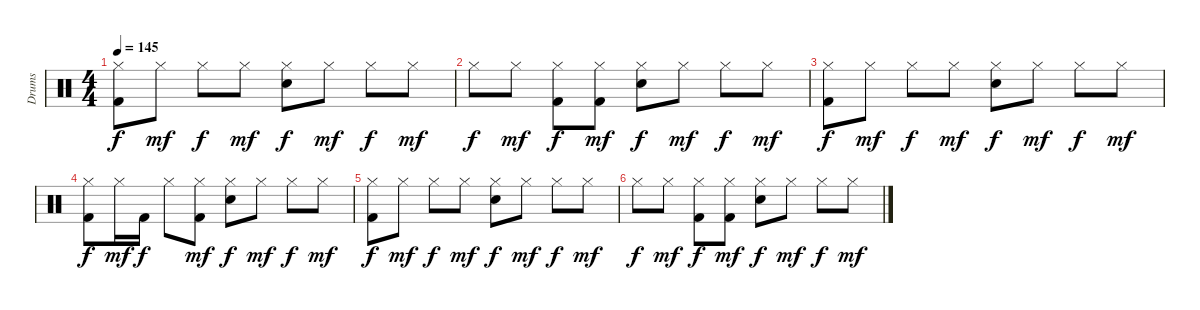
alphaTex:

\track ("Drums" "Drums") {instrument percussion}
\staff {score}
\articulation defaults
\ts (4 4)
\tempo 145
\clef neutral
\ks c
("Hi-Hat (closed)" "Kick (hit) 2").8{dy f} "Hi-Hat (closed)".8{dy mf} "Hi-Hat (closed)".8{dy f} "Hi-Hat (closed)".8{dy mf} ("Hi-Hat (closed)" "Electric Snare (hit)").8{dy f} "Hi-Hat (closed)".8{dy mf} "Hi-Hat (closed)".8{dy f} "Hi-Hat (closed)".8{dy mf} |
"Hi-Hat (closed)".8{dy f} "Hi-Hat (closed)".8{dy mf} ("Hi-Hat (closed)" "Kick (hit) 2").8{dy f} ("Hi-Hat (closed)" "Kick (hit) 2").8{dy mf} ("Hi-Hat (closed)" "Electric Snare (hit)").8{dy f} "Hi-Hat (closed)".8{dy mf} "Hi-Hat (closed)".8{dy f} "Hi-Hat (closed)".8{dy mf} |
("Hi-Hat (closed)" "Kick (hit) 2").8{dy f} "Hi-Hat (closed)".8{dy mf} "Hi-Hat (closed)".8{dy f} "Hi-Hat (closed)".8{dy mf volume 0} ("Hi-Hat (closed)" "Electric Snare (hit)").8{dy f} "Hi-Hat (closed)".8{dy mf} "Hi-Hat (closed)".8{dy f} "Hi-Hat (closed)".8{dy mf} |
("Hi-Hat (closed)" "Kick (hit) 2").8{dy f} "Hi-Hat (closed)".16{dy mf} "Kick (hit) 2".16{dy f} "Hi-Hat (closed)".8 ("Hi-Hat (closed)" "Kick (hit) 2").8{dy mf} ("Hi-Hat (closed)" "Electric Snare (hit)").8{dy f} "Hi-Hat (closed)".8{dy mf} "Hi-Hat (closed)".8{dy f} "Hi-Hat (closed)".8{dy mf} |
("Hi-Hat (closed)" "Kick (hit) 2").8{dy f} "Hi-Hat (closed)".8{dy mf} "Hi-Hat (closed)".8{dy f} "Hi-Hat (closed)".8{dy mf} ("Hi-Hat (closed)" "Electric Snare (hit)").8{dy f} "Hi-Hat (closed)".8{dy mf} "Hi-Hat (closed)".8{dy f} "Hi-Hat (closed)".8{dy mf} |
"Hi-Hat (closed)".8{dy f} "Hi-Hat (closed)".8{dy mf} ("Hi-Hat (closed)" "Kick (hit) 2").8{dy f} ("Hi-Hat (closed)" "Kick (hit) 2").8{dy mf} ("Hi-Hat (closed)" "Electric Snare (hit)").8{dy f} "Hi-Hat (closed)".8{dy mf} "Hi-Hat (closed)".8{dy f} "Hi-Hat (closed)".8{dy mf}
